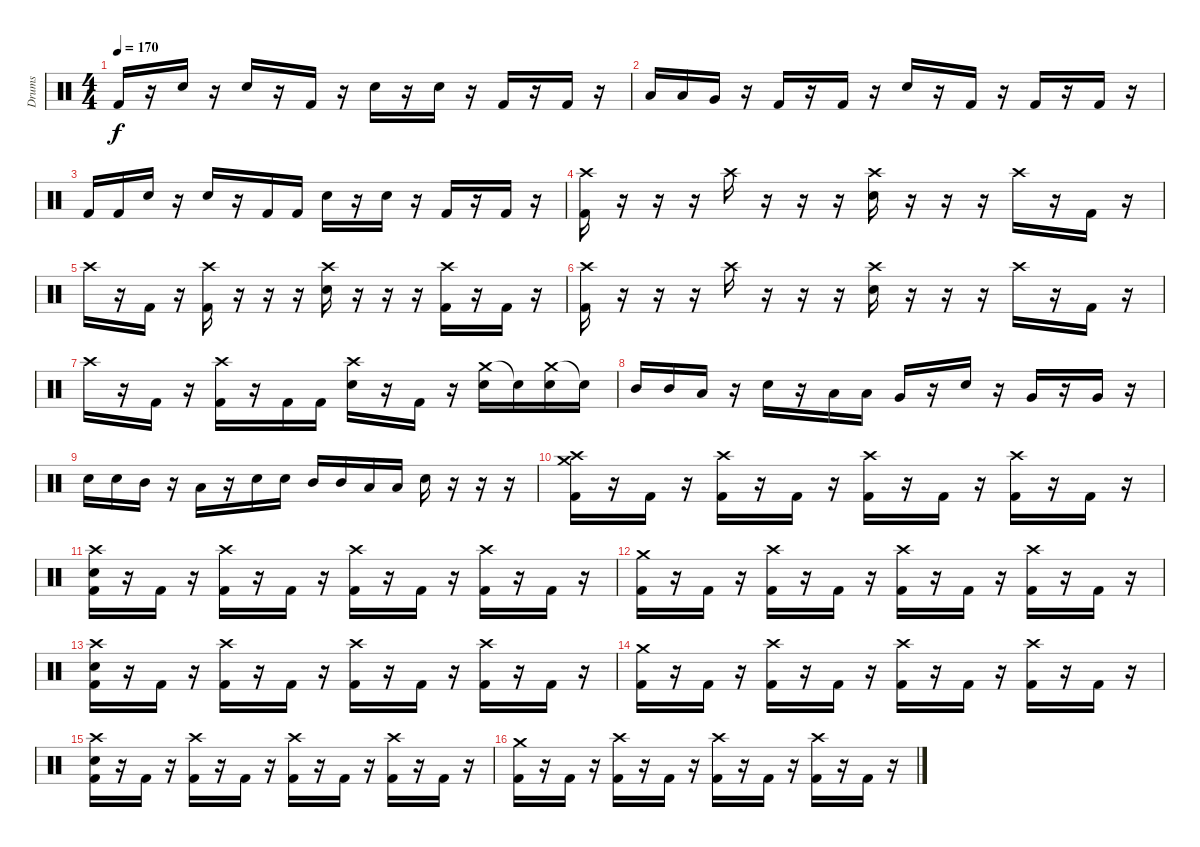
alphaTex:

\track ("Drums" "Drums") {instrument percussion}
\staff {score}
\articulation defaults
\ts (4 4)
\tempo 170
\clef neutral
\ks c "Kick (hit) 2".16{dy f}
r.16 "Electric Snare (hit)".16 r.16 "Electric Snare (hit)".16 r.16 "Kick (hit) 2".16 r.16 "Electric Snare (hit)".16 r.16 "Electric Snare (hit)".16 r.16 "Kick (hit) 2".16 r.16 "Kick (hit) 2".16 r.16 |
"Low Tom (hit)".16 "Low Tom (hit)".16 "Very Low Tom (hit)".16 r.16 "Kick (hit) 2".16 r.16 "Kick (hit) 2".16 r.16 "Electric Snare (hit)".16 r.16 "Kick (hit) 2".16 r.16 "Kick (hit) 2".16 r.16 "Kick (hit) 2".16 r.16 |
"Kick (hit) 2".16 "Kick (hit) 2".16 "Electric Snare (hit)".16 r.16 "Electric Snare (hit)".16 r.16 "Kick (hit) 2".16 "Kick (hit) 2".16 "Electric Snare (hit)".16 r.16 "Electric Snare (hit)".16 r.16 "Kick (hit) 2".16 r.16 "Kick (hit) 2".16 r.16 |
("Crash high (hit)" "Kick (hit) 2").16 r.16 r.16 r.16 "Crash high (hit)".16 r.16 r.16 r.16 ("Crash high (hit)" "Electric Snare (hit)").16 r.16 r.16 r.16 "Crash high (hit)".16 r.16 "Kick (hit) 2".16 r.16 |
"Crash high (hit)".16 r.16 "Kick (hit) 2".16 r.16 ("Crash high (hit)" "Kick (hit) 2").16 r.16 r.16 r.16 ("Crash high (hit)" "Electric Snare (hit)").16 r.16 r.16 r.16 ("Crash high (hit)" "Kick (hit) 2").16 r.16 "Kick (hit) 2".16 r.16 |
("Crash high (hit)" "Kick (hit) 2").16 r.16 r.16 r.16 "Crash high (hit)".16 r.16 r.16 r.16 ("Crash high (hit)" "Electric Snare (hit)").16 r.16 r.16 r.16 "Crash high (hit)".16 r.16 "Kick (hit) 2".16 r.16 |
"Crash high (hit)".16 r.16 "Kick (hit) 2".16 r.16 ("Crash high (hit)" "Kick (hit) 2").16 r.16 "Kick (hit) 2".16 "Kick (hit) 2".16 ("Crash high (hit)" "Electric Snare (hit)").16 r.16 "Kick (hit) 2".16 r.16 ("Crash medium (hit)" "Electric Snare (hit)").16 "Snare (hit)"{t}.16 ("Crash medium (hit)" "Electric Snare (hit)").16 "Snare (hit)"{t}.16 |
"Mid Tom (hit)".16 "Mid Tom (hit)".16 "Low Tom (hit)".16 r.16 "Electric Snare (hit)".16 r.16 "Low Tom (hit)".16 "Low Tom (hit)".16 "Very Low Tom (hit)".16 r.16 "Electric Snare (hit)".16 r.16 "Very Low Tom (hit)".16 r.16 "Very Low Tom (hit)".16 r.16 |
"Electric Snare (hit)".16 "Electric Snare (hit)".16 "Mid Tom (hit)".16 r.16 "Low Tom (hit)".16 r.16 "Electric Snare (hit)".16 "Electric Snare (hit)".16 "Mid Tom (hit)".16 "Mid Tom (hit)".16 "Low Tom (hit)".16 "Low Tom (hit)".16 "Electric Snare (hit)".16 r.16 r.16 r.16 |
("Crash medium (hit)" "Crash high (hit)" "Kick (hit) 2").16 r.16 "Kick (hit) 2".16 r.16 ("Crash high (hit)" "Kick (hit) 2").16 r.16 "Kick (hit) 2".16 r.16 ("Crash high (hit)" "Kick (hit) 2").16 r.16 "Kick (hit) 2".16 r.16 ("Crash high (hit)" "Kick (hit) 2").16 r.16 "Kick (hit) 2".16 r.16 |
("Crash high (hit)" "Electric Snare (hit)" "Kick (hit) 2").16 r.16 "Kick (hit) 2".16 r.16 ("Crash high (hit)" "Kick (hit) 2").16 r.16 "Kick (hit) 2".16 r.16 ("Crash high (hit)" "Kick (hit) 2").16 r.16 "Kick (hit) 2".16 r.16 ("Crash high (hit)" "Kick (hit) 2").16 r.16 "Kick (hit) 2".16 r.16 |
("Crash medium (hit)" "Kick (hit) 2").16 r.16 "Kick (hit) 2".16 r.16 ("Crash high (hit)" "Kick (hit) 2").16 r.16 "Kick (hit) 2".16 r.16 ("Crash high (hit)" "Kick (hit) 2").16 r.16 "Kick (hit) 2".16 r.16 ("Crash high (hit)" "Kick (hit) 2").16 r.16 "Kick (hit) 2".16 r.16 |
("Crash high (hit)" "Electric Snare (hit)" "Kick (hit) 2").16 r.16 "Kick (hit) 2".16 r.16 ("Crash high (hit)" "Kick (hit) 2").16 r.16 "Kick (hit) 2".16 r.16 ("Crash high (hit)" "Kick (hit) 2").16 r.16 "Kick (hit) 2".16 r.16 ("Crash high (hit)" "Kick (hit) 2").16 r.16 "Kick (hit) 2".16 r.16 |
("Crash medium (hit)" "Kick (hit) 2").16 r.16 "Kick (hit) 2".16 r.16 ("Crash high (hit)" "Kick (hit) 2").16 r.16 "Kick (hit) 2".16 r.16 ("Crash high (hit)" "Kick (hit) 2").16 r.16 "Kick (hit) 2".16 r.16 ("Crash high (hit)" "Kick (hit) 2").16 r.16 "Kick (hit) 2".16 r.16 |
("Crash high (hit)" "Electric Snare (hit)" "Kick (hit) 2").16 r.16 "Kick (hit) 2".16 r.16 ("Crash high (hit)" "Kick (hit) 2").16 r.16 "Kick (hit) 2".16 r.16 ("Crash high (hit)" "Kick (hit) 2").16 r.16 "Kick (hit) 2".16 r.16 ("Crash high (hit)" "Kick (hit) 2").16 r.16 "Kick (hit) 2".16 r.16 |
("Crash medium (hit)" "Kick (hit) 2").16 r.16 "Kick (hit) 2".16 r.16 ("Crash high (hit)" "Kick (hit) 2").16 r.16 "Kick (hit) 2".16 r.16 ("Crash high (hit)" "Kick (hit) 2").16 r.16 "Kick (hit) 2".16 r.16 ("Crash high (hit)" "Kick (hit) 2").16 r.16 "Kick (hit) 2".16 r.16
